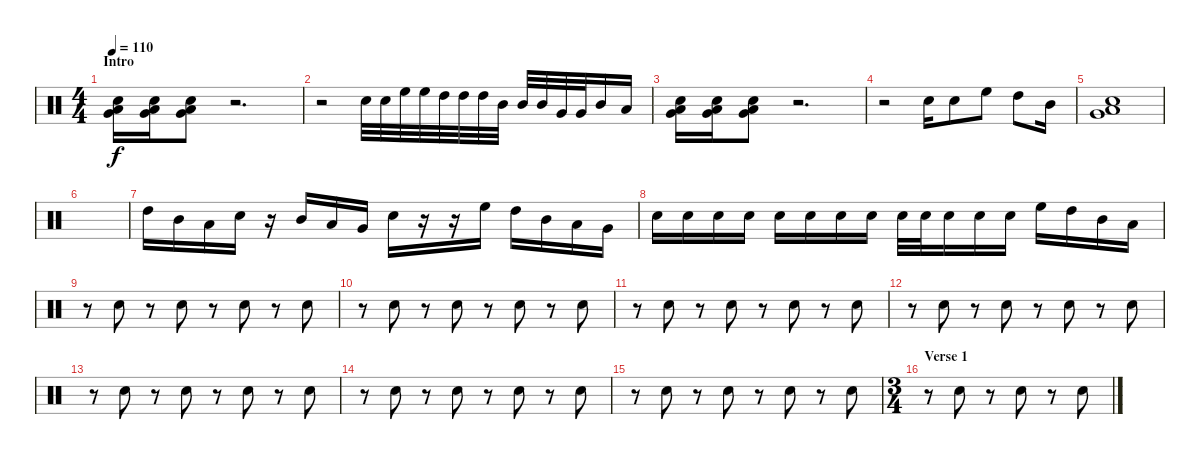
\track "" {instrument percussion}
\staff {score}
\articulation defaults
\ts (4 4)
\section ("" "Intro")
\tempo 110
\clef neutral
\ks c
("Electric Snare (hit)" "Very Low Tom (hit)" "Low Tom (hit)").16{dy f} ("Electric Snare (hit)" "Very Low Tom (hit)" "Low Tom (hit)").16 ("Electric Snare (hit)" "Very Low Tom (hit)" "Low Tom (hit)").8 r.2{d} |
r.2 "Electric Snare (hit)".32 "Electric Snare (hit)".32 "High Floor Tom (hit)".32 "High Floor Tom (hit)".32 "High Tom (hit)".32 "High Tom (hit)".32 "High Tom (hit)".32 "Mid Tom (hit)".32 "Mid Tom (hit)".32 "Mid Tom (hit)".32 "Very Low Tom (hit)".32 "Very Low Tom (hit)".32 "Mid Tom (hit)".16 "Low Tom (hit)".16 |
("Electric Snare (hit)" "Very Low Tom (hit)" "Low Tom (hit)").16 ("Electric Snare (hit)" "Very Low Tom (hit)" "Low Tom (hit)").16 ("Electric Snare (hit)" "Very Low Tom (hit)" "Low Tom (hit)").8 r.2{d} |
r.2 "Electric Snare (hit)".16 "Electric Snare (hit)".8 "High Floor Tom (hit)".8 "High Tom (hit)".8 "Mid Tom (hit)".16 |
("Electric Snare (hit)" "Very Low Tom (hit)" "Low Tom (hit)").1 |
|
"High Tom (hit)".16 "Mid Tom (hit)".16 "Low Tom (hit)".16 "Electric Snare (hit)".16 r.16 "Mid Tom (hit)".16 "Low Tom (hit)".16 "Very Low Tom (hit)".16 "Electric Snare (hit)".16 r.16 r.16 "High Floor Tom (hit)".16 "High Tom (hit)".16 "Mid Tom (hit)".16 "Low Tom (hit)".16 "Very Low Tom (hit)".16 |
"Electric Snare (hit)".16 "Electric Snare (hit)".16 "Electric Snare (hit)".16 "Electric Snare (hit)".16 "Electric Snare (hit)".16 "Electric Snare (hit)".16 "Electric Snare (hit)".16 "Electric Snare (hit)".16 "Electric Snare (hit)".32 "Electric Snare (hit)".32 "Electric Snare (hit)".16 "Electric Snare (hit)".16 "Electric Snare (hit)".16 "High Floor Tom (hit)".16 "High Tom (hit)".16 "Mid Tom (hit)".16 "Low Tom (hit)".16 |
r.8 "Electric Snare (hit)".8 r.8 "Electric Snare (hit)".8 r.8 "Electric Snare (hit)".8 r.8 "Electric Snare (hit)".8 |
r.8 "Electric Snare (hit)".8 r.8 "Electric Snare (hit)".8 r.8 "Electric Snare (hit)".8 r.8 "Electric Snare (hit)".8 |
r.8 "Electric Snare (hit)".8 r.8 "Electric Snare (hit)".8 r.8 "Electric Snare (hit)".8 r.8 "Electric Snare (hit)".8 |
r.8 "Electric Snare (hit)".8 r.8 "Electric Snare (hit)".8 r.8 "Electric Snare (hit)".8 r.8 "Electric Snare (hit)".8 |
r.8 "Electric Snare (hit)".8 r.8 "Electric Snare (hit)".8 r.8 "Electric Snare (hit)".8 r.8 "Electric Snare (hit)".8 |
r.8 "Electric Snare (hit)".8 r.8 "Electric Snare (hit)".8 r.8 "Electric Snare (hit)".8 r.8 "Electric Snare (hit)".8 |
r.8 "Electric Snare (hit)".8 r.8 "Electric Snare (hit)".8 r.8 "Electric Snare (hit)".8 r.8 "Electric Snare (hit)".8 |
\ts (3 4)
\section ("" "Verse 1")
r.8 "Electric Snare (hit)".8 r.8 "Electric Snare (hit)".8 r.8 "Electric Snare (hit)".8
